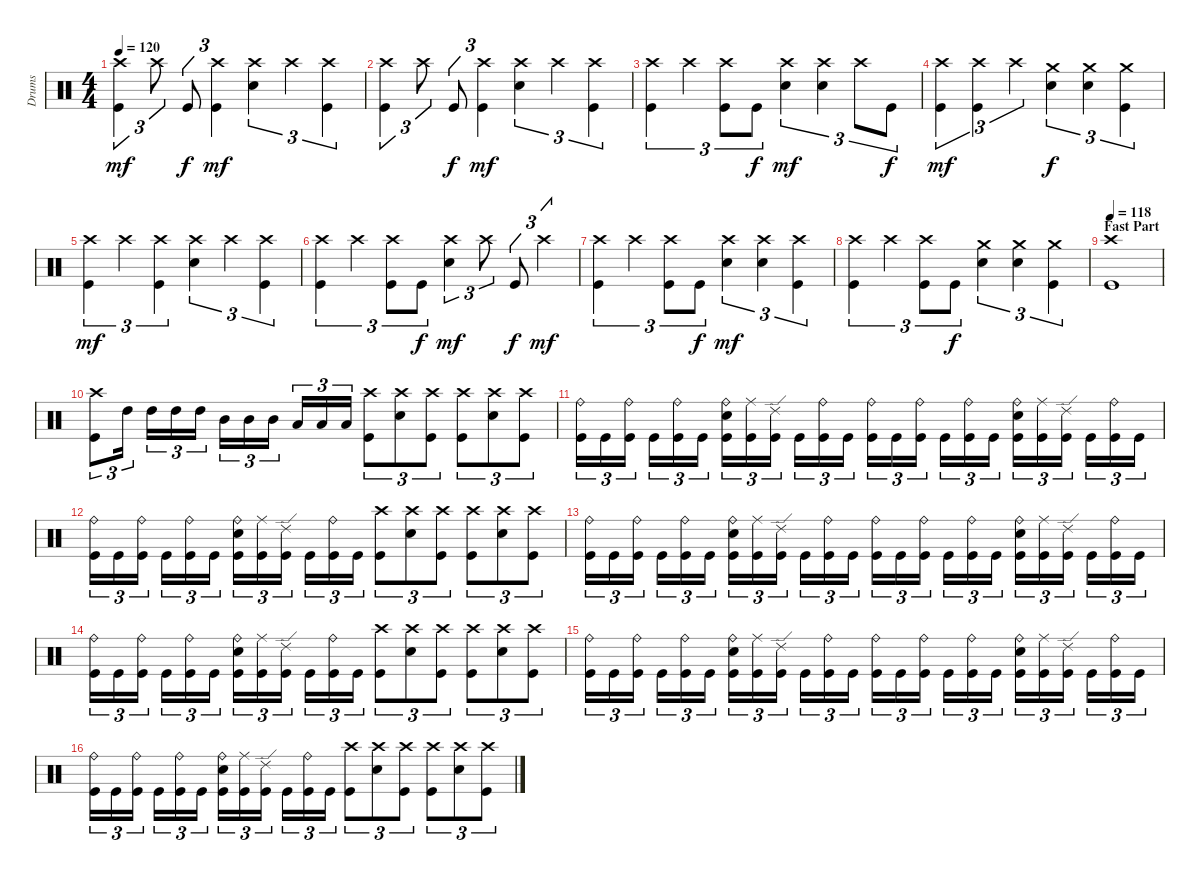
\track ("Drums" "Drums") {instrument percussion}
\staff {score}
\articulation defaults
\ts (4 4)
\tempo 120
\clef neutral
\ks c
("Crash high (hit)" "Kick (hit)").4{tu (3 2) dy mf} "Crash high (hit)".8{tu (3 2)} "Kick (hit)".8{tu (3 2) dy f} ("Crash high (hit)" "Kick (hit)").4{tu (3 2) dy mf} ("Crash high (hit)" "Electric Snare (hit)").4{tu (3 2)} "Crash high (hit)".4{tu (3 2)} ("Crash high (hit)" "Kick (hit)").4{tu (3 2)} |
("Crash high (hit)" "Kick (hit)").4{tu (3 2)} "Crash high (hit)".8{tu (3 2)} "Kick (hit)".8{tu (3 2) dy f} ("Crash high (hit)" "Kick (hit)").4{tu (3 2) dy mf} ("Crash high (hit)" "Electric Snare (hit)").4{tu (3 2)} "Crash high (hit)".4{tu (3 2)} ("Crash high (hit)" "Kick (hit)").4{tu (3 2)} |
("Crash high (hit)" "Kick (hit)").4{tu (3 2)} "Crash high (hit)".4{tu (3 2)} ("Crash high (hit)" "Kick (hit)").8{tu (3 2)} "Kick (hit)".8{tu (3 2) dy f} ("Crash high (hit)" "Electric Snare (hit)").4{tu (3 2) dy mf} ("Crash high (hit)" "Electric Snare (hit)").4{tu (3 2)} "Crash high (hit)".8{tu (3 2)} "Kick (hit)".8{tu (3 2) dy f} |
("Crash high (hit)" "Kick (hit)").4{tu (3 2) dy mf} ("Crash high (hit)" "Kick (hit)").4{tu (3 2)} "Crash high (hit)".4{tu (3 2)} ("Crash medium (hit)" "Electric Snare (hit)").4{tu (3 2) dy f} ("Crash medium (hit)" "Electric Snare (hit)").4{tu (3 2)} ("Crash medium (hit)" "Kick (hit)").4{tu (3 2)} |
("Crash high (hit)" "Kick (hit)").4{tu (3 2) dy mf} "Crash high (hit)".4{tu (3 2)} ("Crash high (hit)" "Kick (hit)").4{tu (3 2)} ("Crash high (hit)" "Electric Snare (hit)").4{tu (3 2)} "Crash high (hit)".4{tu (3 2)} ("Crash high (hit)" "Kick (hit)").4{tu (3 2)} |
("Crash high (hit)" "Kick (hit)").4{tu (3 2)} "Crash high (hit)".4{tu (3 2)} ("Crash high (hit)" "Kick (hit)").8{tu (3 2)} "Kick (hit)".8{tu (3 2) dy f} ("Crash high (hit)" "Electric Snare (hit)").4{tu (3 2) dy mf} "Crash high (hit)".8{tu (3 2)} "Kick (hit)".8{tu (3 2) dy f} "Crash high (hit)".4{tu (3 2) dy mf} |
("Crash high (hit)" "Kick (hit)").4{tu (3 2)} "Crash high (hit)".4{tu (3 2)} ("Crash high (hit)" "Kick (hit)").8{tu (3 2)} "Kick (hit)".8{tu (3 2) dy f} ("Crash high (hit)" "Electric Snare (hit)").4{tu (3 2) dy mf} ("Crash high (hit)" "Electric Snare (hit)").4{tu (3 2)} ("Crash high (hit)" "Kick (hit)").4{tu (3 2)} |
("Crash high (hit)" "Kick (hit)").4{tu (3 2)} "Crash high (hit)".4{tu (3 2)} ("Crash high (hit)" "Kick (hit)").8{tu (3 2)} "Kick (hit)".8{tu (3 2) dy f} ("Crash medium (hit)" "Electric Snare (hit)").4{tu (3 2)} ("Crash medium (hit)" "Electric Snare (hit)").4{tu (3 2)} ("Crash medium (hit)" "Kick (hit)").4{tu (3 2)} |
\section ("" "Fast Part")
\tempo 118
("Crash high (hit)" "Kick (hit)").1 |
("Crash high (hit)" "Kick (hit)").8{tu (3 2)} "High Tom (hit)".16{tu (3 2)} "High Tom (hit)".16{tu (3 2)} "High Tom (hit)".16{tu (3 2)} "High Tom (hit)".16{tu (3 2)} "Mid Tom (hit)".16{tu (3 2)} "Mid Tom (hit)".16{tu (3 2)} "Mid Tom (hit)".16{tu (3 2)} "Low Tom (hit)".16{tu (3 2)} "Low Tom (hit)".16{tu (3 2)} "Low Tom (hit)".16{tu (3 2)} ("Crash high (hit)" "Kick (hit)").8{tu (3 2)} ("Crash high (hit)" "Electric Snare (hit)").8{tu (3 2)} ("Crash high (hit)" "Kick (hit)").8{tu (3 2)} ("Crash high (hit)" "Kick (hit)").8{tu (3 2)} ("Crash high (hit)" "Electric Snare (hit)").8{tu (3 2)} ("Crash high (hit)" "Kick (hit)").8{tu (3 2)} |
("Ride (bell)" "Kick (hit)").16{tu (3 2)} "Kick (hit)".16{tu (3 2)} ("Ride (bell)" "Kick (hit)").16{tu (3 2)} "Kick (hit)".16{tu (3 2)} ("Ride (bell)" "Kick (hit)").16{tu (3 2)} "Kick (hit)".16{tu (3 2)} ("Ride (bell)" "Electric Snare (hit)" "Kick (hit)").16{tu (3 2)} ("Ride (middle)" "Kick (hit)").16{tu (3 2)} ("Ride (edge) 2" "Kick (hit)").16{tu (3 2)} "Kick (hit)".16{tu (3 2)} ("Ride (bell)" "Kick (hit)").16{tu (3 2)} "Kick (hit)".16{tu (3 2)} ("Ride (bell)" "Kick (hit)").16{tu (3 2)} "Kick (hit)".16{tu (3 2)} ("Ride (bell)" "Kick (hit)").16{tu (3 2)} "Kick (hit)".16{tu (3 2)} ("Ride (bell)" "Kick (hit)").16{tu (3 2)} "Kick (hit)".16{tu (3 2)} ("Ride (bell)" "Electric Snare (hit)" "Kick (hit)").16{tu (3 2)} ("Ride (middle)" "Kick (hit)").16{tu (3 2)} ("Ride (edge) 2" "Kick (hit)").16{tu (3 2)} "Kick (hit)".16{tu (3 2)} ("Ride (bell)" "Kick (hit)").16{tu (3 2)} "Kick (hit)".16{tu (3 2)} |
("Ride (bell)" "Kick (hit)").16{tu (3 2)} "Kick (hit)".16{tu (3 2)} ("Ride (bell)" "Kick (hit)").16{tu (3 2)} "Kick (hit)".16{tu (3 2)} ("Ride (bell)" "Kick (hit)").16{tu (3 2)} "Kick (hit)".16{tu (3 2)} ("Ride (bell)" "Electric Snare (hit)" "Kick (hit)").16{tu (3 2)} ("Ride (middle)" "Kick (hit)").16{tu (3 2)} ("Ride (edge) 2" "Kick (hit)").16{tu (3 2)} "Kick (hit)".16{tu (3 2)} ("Ride (bell)" "Kick (hit)").16{tu (3 2)} "Kick (hit)".16{tu (3 2)} ("Crash high (hit)" "Kick (hit)").8{tu (3 2)} ("Crash high (hit)" "Electric Snare (hit)").8{tu (3 2)} ("Crash high (hit)" "Kick (hit)").8{tu (3 2)} ("Crash high (hit)" "Kick (hit)").8{tu (3 2)} ("Crash high (hit)" "Electric Snare (hit)").8{tu (3 2)} ("Crash high (hit)" "Kick (hit)").8{tu (3 2)} |
("Ride (bell)" "Kick (hit)").16{tu (3 2)} "Kick (hit)".16{tu (3 2)} ("Ride (bell)" "Kick (hit)").16{tu (3 2)} "Kick (hit)".16{tu (3 2)} ("Ride (bell)" "Kick (hit)").16{tu (3 2)} "Kick (hit)".16{tu (3 2)} ("Ride (bell)" "Electric Snare (hit)" "Kick (hit)").16{tu (3 2)} ("Ride (middle)" "Kick (hit)").16{tu (3 2)} ("Ride (edge) 2" "Kick (hit)").16{tu (3 2)} "Kick (hit)".16{tu (3 2)} ("Ride (bell)" "Kick (hit)").16{tu (3 2)} "Kick (hit)".16{tu (3 2)} ("Ride (bell)" "Kick (hit)").16{tu (3 2)} "Kick (hit)".16{tu (3 2)} ("Ride (bell)" "Kick (hit)").16{tu (3 2)} "Kick (hit)".16{tu (3 2)} ("Ride (bell)" "Kick (hit)").16{tu (3 2)} "Kick (hit)".16{tu (3 2)} ("Ride (bell)" "Electric Snare (hit)" "Kick (hit)").16{tu (3 2)} ("Ride (middle)" "Kick (hit)").16{tu (3 2)} ("Ride (edge) 2" "Kick (hit)").16{tu (3 2)} "Kick (hit)".16{tu (3 2)} ("Ride (bell)" "Kick (hit)").16{tu (3 2)} "Kick (hit)".16{tu (3 2)} |
("Ride (bell)" "Kick (hit)").16{tu (3 2)} "Kick (hit)".16{tu (3 2)} ("Ride (bell)" "Kick (hit)").16{tu (3 2)} "Kick (hit)".16{tu (3 2)} ("Ride (bell)" "Kick (hit)").16{tu (3 2)} "Kick (hit)".16{tu (3 2)} ("Ride (bell)" "Electric Snare (hit)" "Kick (hit)").16{tu (3 2)} ("Ride (middle)" "Kick (hit)").16{tu (3 2)} ("Ride (edge) 2" "Kick (hit)").16{tu (3 2)} "Kick (hit)".16{tu (3 2)} ("Ride (bell)" "Kick (hit)").16{tu (3 2)} "Kick (hit)".16{tu (3 2)} ("Crash high (hit)" "Kick (hit)").8{tu (3 2)} ("Crash high (hit)" "Electric Snare (hit)").8{tu (3 2)} ("Crash high (hit)" "Kick (hit)").8{tu (3 2)} ("Crash high (hit)" "Kick (hit)").8{tu (3 2)} ("Crash high (hit)" "Electric Snare (hit)").8{tu (3 2)} ("Crash high (hit)" "Kick (hit)").8{tu (3 2)} |
("Ride (bell)" "Kick (hit)").16{tu (3 2)} "Kick (hit)".16{tu (3 2)} ("Ride (bell)" "Kick (hit)").16{tu (3 2)} "Kick (hit)".16{tu (3 2)} ("Ride (bell)" "Kick (hit)").16{tu (3 2)} "Kick (hit)".16{tu (3 2)} ("Ride (bell)" "Electric Snare (hit)" "Kick (hit)").16{tu (3 2)} ("Ride (middle)" "Kick (hit)").16{tu (3 2)} ("Ride (edge) 2" "Kick (hit)").16{tu (3 2)} "Kick (hit)".16{tu (3 2)} ("Ride (bell)" "Kick (hit)").16{tu (3 2)} "Kick (hit)".16{tu (3 2)} ("Ride (bell)" "Kick (hit)").16{tu (3 2)} "Kick (hit)".16{tu (3 2)} ("Ride (bell)" "Kick (hit)").16{tu (3 2)} "Kick (hit)".16{tu (3 2)} ("Ride (bell)" "Kick (hit)").16{tu (3 2)} "Kick (hit)".16{tu (3 2)} ("Ride (bell)" "Electric Snare (hit)" "Kick (hit)").16{tu (3 2)} ("Ride (middle)" "Kick (hit)").16{tu (3 2)} ("Ride (edge) 2" "Kick (hit)").16{tu (3 2)} "Kick (hit)".16{tu (3 2)} ("Ride (bell)" "Kick (hit)").16{tu (3 2)} "Kick (hit)".16{tu (3 2)} |
("Ride (bell)" "Kick (hit)").16{tu (3 2)} "Kick (hit)".16{tu (3 2)} ("Ride (bell)" "Kick (hit)").16{tu (3 2)} "Kick (hit)".16{tu (3 2)} ("Ride (bell)" "Kick (hit)").16{tu (3 2)} "Kick (hit)".16{tu (3 2)} ("Ride (bell)" "Electric Snare (hit)" "Kick (hit)").16{tu (3 2)} ("Ride (middle)" "Kick (hit)").16{tu (3 2)} ("Ride (edge) 2" "Kick (hit)").16{tu (3 2)} "Kick (hit)".16{tu (3 2)} ("Ride (bell)" "Kick (hit)").16{tu (3 2)} "Kick (hit)".16{tu (3 2)} ("Crash high (hit)" "Kick (hit)").8{tu (3 2)} ("Crash high (hit)" "Electric Snare (hit)").8{tu (3 2)} ("Crash high (hit)" "Kick (hit)").8{tu (3 2)} ("Crash high (hit)" "Kick (hit)").8{tu (3 2)} ("Crash high (hit)" "Electric Snare (hit)").8{tu (3 2)} ("Crash high (hit)" "Kick (hit)").8{tu (3 2)}
